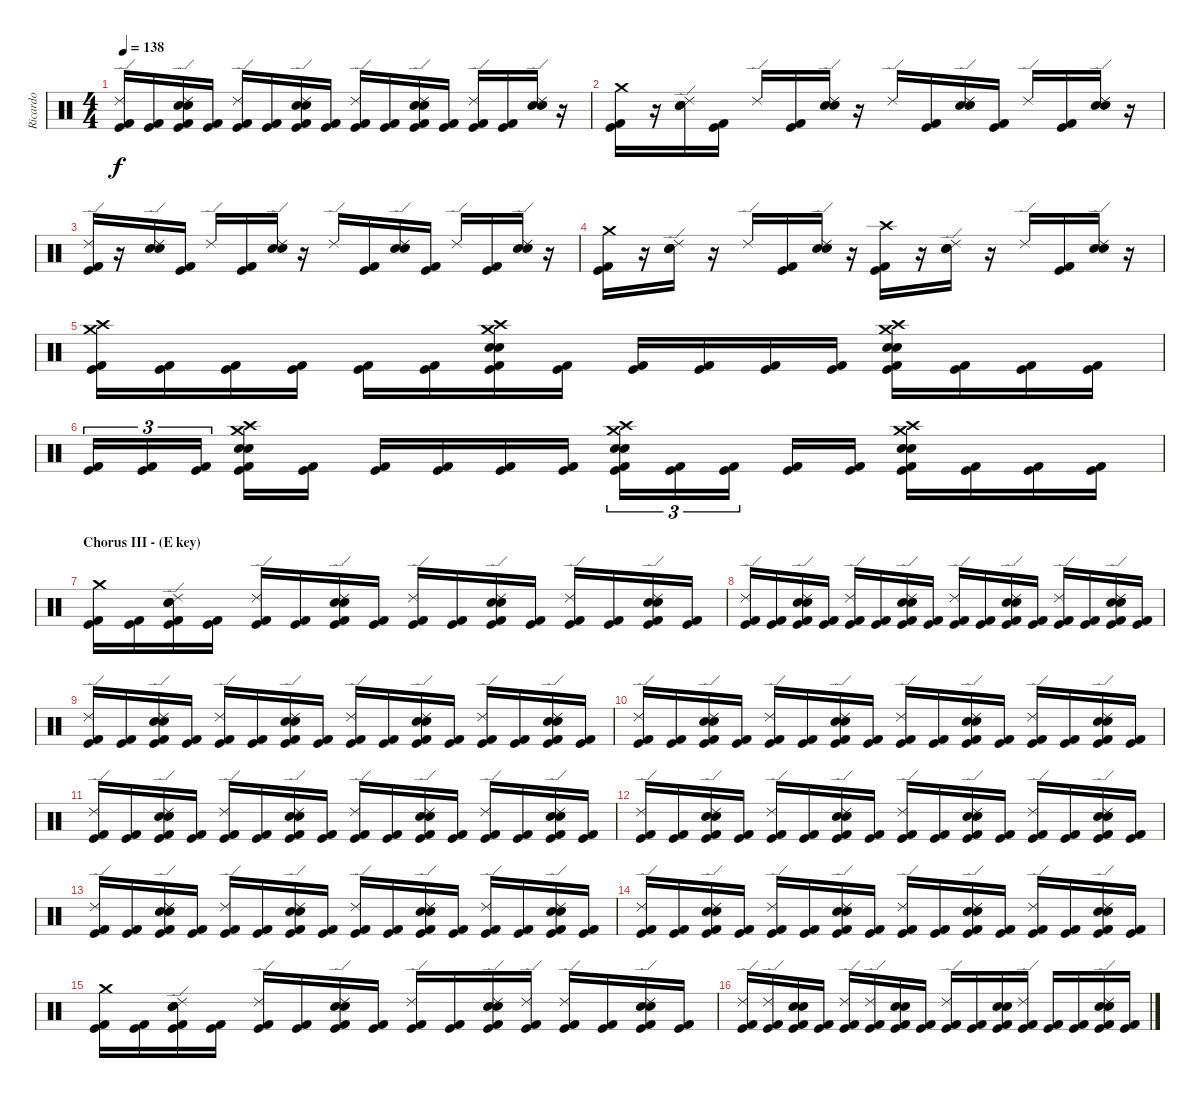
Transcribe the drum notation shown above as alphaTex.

\track ("Ricardo" "Ricardo") {instrument percussion}
\staff {score}
\articulation defaults
\ts (4 4)
\tempo 138
\clef neutral
\ks c
("Ride (edge) 2" "Kick (hit) 2" "Kick (hit)").16{dy f} ("Kick (hit) 2" "Kick (hit)").16 ("Electric Snare (hit)" "Snare (hit) 2" "Ride (edge) 2" "Kick (hit) 2" "Kick (hit)").16 ("Kick (hit) 2" "Kick (hit)").16 ("Ride (edge) 2" "Kick (hit) 2" "Kick (hit)").16 ("Kick (hit) 2" "Kick (hit)").16 ("Electric Snare (hit)" "Snare (hit) 2" "Ride (edge) 2" "Kick (hit) 2" "Kick (hit)").16 ("Kick (hit) 2" "Kick (hit)").16 ("Ride (edge) 2" "Kick (hit) 2" "Kick (hit)").16 ("Kick (hit) 2" "Kick (hit)").16 ("Electric Snare (hit)" "Snare (hit) 2" "Ride (edge) 2" "Kick (hit) 2" "Kick (hit)").16 ("Kick (hit) 2" "Kick (hit)").16 ("Ride (edge) 2" "Kick (hit) 2" "Kick (hit)").16 ("Kick (hit) 2" "Kick (hit)").16 ("Ride (edge) 2" "Electric Snare (hit)" "Snare (hit) 2").16 r.16 |
("Crash medium (hit)" "Kick (hit) 2" "Kick (hit)").16 r.16 ("Electric Snare (hit)" "Snare (hit) 2" "Ride (edge) 2").16 ("Kick (hit) 2" "Kick (hit)").16 "Ride (edge) 2".16 ("Kick (hit) 2" "Kick (hit)").16 ("Electric Snare (hit)" "Snare (hit) 2" "Ride (edge) 2").16 r.16 "Ride (edge) 2".16 ("Kick (hit) 2" "Kick (hit)").16 ("Electric Snare (hit)" "Snare (hit) 2" "Ride (edge) 2").16 ("Kick (hit) 2" "Kick (hit)").16 "Ride (edge) 2".16 ("Kick (hit) 2" "Kick (hit)").16 ("Electric Snare (hit)" "Snare (hit) 2" "Ride (edge) 2").16 r.16 |
("Ride (edge) 2" "Kick (hit) 2" "Kick (hit)").16 r.16 ("Ride (edge) 2" "Electric Snare (hit)" "Snare (hit) 2").16 ("Kick (hit) 2" "Kick (hit)").16 "Ride (edge) 2".16 ("Kick (hit) 2" "Kick (hit)").16 ("Electric Snare (hit)" "Snare (hit) 2" "Ride (edge) 2").16 r.16 "Ride (edge) 2".16 ("Kick (hit) 2" "Kick (hit)").16 ("Electric Snare (hit)" "Snare (hit) 2" "Ride (edge) 2").16 ("Kick (hit) 2" "Kick (hit)").16 "Ride (edge) 2".16 ("Kick (hit) 2" "Kick (hit)").16 ("Electric Snare (hit)" "Snare (hit) 2" "Ride (edge) 2").16 r.16 |
("Kick (hit) 2" "Kick (hit)" "Crash medium (hit)").16 r.16 ("Electric Snare (hit)" "Snare (hit) 2" "Ride (edge) 2").16 r.16 "Ride (edge) 2".16 ("Kick (hit) 2" "Kick (hit)").16 ("Electric Snare (hit)" "Snare (hit) 2" "Ride (edge) 2").16 r.16 ("Crash high (hit)" "Kick (hit) 2" "Kick (hit)").16 r.16 ("Ride (edge) 2" "Electric Snare (hit)" "Snare (hit) 2").16 r.16 "Ride (edge) 2".16 ("Kick (hit)" "Kick (hit) 2").16 ("Ride (edge) 2" "Electric Snare (hit)" "Snare (hit) 2").16 r.16 |
("Crash high (hit)" "Crash medium (hit)" "Kick (hit) 2" "Kick (hit)").16 ("Kick (hit) 2" "Kick (hit)").16 ("Kick (hit) 2" "Kick (hit)").16 ("Kick (hit) 2" "Kick (hit)").16 ("Kick (hit) 2" "Kick (hit)").16 ("Kick (hit) 2" "Kick (hit)").16 ("Crash high (hit)" "Crash medium (hit)" "Electric Snare (hit)" "Snare (hit) 2" "Kick (hit) 2" "Kick (hit)").16 ("Kick (hit) 2" "Kick (hit)").16 ("Kick (hit) 2" "Kick (hit)").16 ("Kick (hit) 2" "Kick (hit)").16 ("Kick (hit) 2" "Kick (hit)").16 ("Kick (hit) 2" "Kick (hit)").16 ("Crash medium (hit)" "Crash high (hit)" "Electric Snare (hit)" "Snare (hit) 2" "Kick (hit) 2" "Kick (hit)").16 ("Kick (hit) 2" "Kick (hit)").16 ("Kick (hit) 2" "Kick (hit)").16 ("Kick (hit) 2" "Kick (hit)").16 |
("Kick (hit) 2" "Kick (hit)").16{tu (3 2)} ("Kick (hit) 2" "Kick (hit)").16{tu (3 2)} ("Kick (hit) 2" "Kick (hit)").16{tu (3 2)} ("Crash high (hit)" "Crash medium (hit)" "Electric Snare (hit)" "Snare (hit) 2" "Kick (hit) 2" "Kick (hit)").16 ("Kick (hit) 2" "Kick (hit)").16 ("Kick (hit) 2" "Kick (hit)").16 ("Kick (hit) 2" "Kick (hit)").16 ("Kick (hit) 2" "Kick (hit)").16 ("Kick (hit) 2" "Kick (hit)").16 ("Crash medium (hit)" "Crash high (hit)" "Electric Snare (hit)" "Snare (hit) 2" "Kick (hit) 2" "Kick (hit)").16{tu (3 2)} ("Kick (hit) 2" "Kick (hit)").16{tu (3 2)} ("Kick (hit) 2" "Kick (hit)").16{tu (3 2)} ("Kick (hit) 2" "Kick (hit)").16 ("Kick (hit) 2" "Kick (hit)").16 ("Crash medium (hit)" "Crash high (hit)" "Electric Snare (hit)" "Snare (hit) 2" "Kick (hit) 2" "Kick (hit)").16 ("Kick (hit) 2" "Kick (hit)").16 ("Kick (hit) 2" "Kick (hit)").16 ("Kick (hit) 2" "Kick (hit)").16 |
\section ("" "Chorus III - (E key)")
("Crash medium (hit)" "Kick (hit) 2" "Kick (hit)").16 ("Kick (hit) 2" "Kick (hit)").16 ("Electric Snare (hit)" "Snare (hit) 2" "Ride (edge) 2" "Kick (hit) 2" "Kick (hit)").16 ("Kick (hit) 2" "Kick (hit)").16 ("Ride (edge) 2" "Kick (hit) 2" "Kick (hit)").16 ("Kick (hit) 2" "Kick (hit)").16 ("Electric Snare (hit)" "Snare (hit) 2" "Ride (edge) 2" "Kick (hit) 2" "Kick (hit)").16 ("Kick (hit) 2" "Kick (hit)").16 ("Ride (edge) 2" "Kick (hit) 2" "Kick (hit)").16 ("Kick (hit) 2" "Kick (hit)").16 ("Electric Snare (hit)" "Snare (hit) 2" "Ride (edge) 2" "Kick (hit) 2" "Kick (hit)").16 ("Kick (hit) 2" "Kick (hit)").16 ("Ride (edge) 2" "Kick (hit) 2" "Kick (hit)").16 ("Kick (hit) 2" "Kick (hit)").16 ("Electric Snare (hit)" "Snare (hit) 2" "Ride (edge) 2" "Kick (hit) 2" "Kick (hit)").16 ("Kick (hit) 2" "Kick (hit)").16 |
("Ride (edge) 2" "Kick (hit) 2" "Kick (hit)").16 ("Kick (hit) 2" "Kick (hit)").16 ("Electric Snare (hit)" "Snare (hit) 2" "Ride (edge) 2" "Kick (hit) 2" "Kick (hit)").16 ("Kick (hit) 2" "Kick (hit)").16 ("Ride (edge) 2" "Kick (hit) 2" "Kick (hit)").16 ("Kick (hit) 2" "Kick (hit)").16 ("Electric Snare (hit)" "Snare (hit) 2" "Ride (edge) 2" "Kick (hit) 2" "Kick (hit)").16 ("Kick (hit) 2" "Kick (hit)").16 ("Ride (edge) 2" "Kick (hit) 2" "Kick (hit)").16 ("Kick (hit) 2" "Kick (hit)").16 ("Electric Snare (hit)" "Snare (hit) 2" "Ride (edge) 2" "Kick (hit) 2" "Kick (hit)").16 ("Kick (hit) 2" "Kick (hit)").16 ("Ride (edge) 2" "Kick (hit) 2" "Kick (hit)").16 ("Kick (hit) 2" "Kick (hit)").16 ("Electric Snare (hit)" "Snare (hit) 2" "Ride (edge) 2" "Kick (hit) 2" "Kick (hit)").16 ("Kick (hit) 2" "Kick (hit)").16 |
("Ride (edge) 2" "Kick (hit) 2" "Kick (hit)").16 ("Kick (hit) 2" "Kick (hit)").16 ("Electric Snare (hit)" "Snare (hit) 2" "Ride (edge) 2" "Kick (hit) 2" "Kick (hit)").16 ("Kick (hit) 2" "Kick (hit)").16 ("Ride (edge) 2" "Kick (hit) 2" "Kick (hit)").16 ("Kick (hit) 2" "Kick (hit)").16 ("Electric Snare (hit)" "Snare (hit) 2" "Ride (edge) 2" "Kick (hit) 2" "Kick (hit)").16 ("Kick (hit) 2" "Kick (hit)").16 ("Ride (edge) 2" "Kick (hit) 2" "Kick (hit)").16 ("Kick (hit) 2" "Kick (hit)").16 ("Electric Snare (hit)" "Snare (hit) 2" "Ride (edge) 2" "Kick (hit) 2" "Kick (hit)").16 ("Kick (hit) 2" "Kick (hit)").16 ("Ride (edge) 2" "Kick (hit) 2" "Kick (hit)").16 ("Kick (hit) 2" "Kick (hit)").16 ("Electric Snare (hit)" "Snare (hit) 2" "Ride (edge) 2" "Kick (hit) 2" "Kick (hit)").16 ("Kick (hit) 2" "Kick (hit)").16 |
("Ride (edge) 2" "Kick (hit) 2" "Kick (hit)").16 ("Kick (hit) 2" "Kick (hit)").16 ("Electric Snare (hit)" "Snare (hit) 2" "Ride (edge) 2" "Kick (hit) 2" "Kick (hit)").16 ("Kick (hit) 2" "Kick (hit)").16 ("Ride (edge) 2" "Kick (hit) 2" "Kick (hit)").16 ("Kick (hit) 2" "Kick (hit)").16 ("Electric Snare (hit)" "Snare (hit) 2" "Ride (edge) 2" "Kick (hit) 2" "Kick (hit)").16 ("Kick (hit) 2" "Kick (hit)").16 ("Ride (edge) 2" "Kick (hit) 2" "Kick (hit)").16 ("Kick (hit) 2" "Kick (hit)").16 ("Electric Snare (hit)" "Snare (hit) 2" "Ride (edge) 2" "Kick (hit) 2" "Kick (hit)").16 ("Kick (hit) 2" "Kick (hit)").16 ("Ride (edge) 2" "Kick (hit) 2" "Kick (hit)").16 ("Kick (hit) 2" "Kick (hit)").16 ("Electric Snare (hit)" "Snare (hit) 2" "Ride (edge) 2" "Kick (hit) 2" "Kick (hit)").16 ("Kick (hit) 2" "Kick (hit)").16 |
("Ride (edge) 2" "Kick (hit) 2" "Kick (hit)").16 ("Kick (hit) 2" "Kick (hit)").16 ("Electric Snare (hit)" "Snare (hit) 2" "Ride (edge) 2" "Kick (hit) 2" "Kick (hit)").16 ("Kick (hit) 2" "Kick (hit)").16 ("Ride (edge) 2" "Kick (hit) 2" "Kick (hit)").16 ("Kick (hit) 2" "Kick (hit)").16 ("Electric Snare (hit)" "Snare (hit) 2" "Ride (edge) 2" "Kick (hit) 2" "Kick (hit)").16 ("Kick (hit) 2" "Kick (hit)").16 ("Ride (edge) 2" "Kick (hit) 2" "Kick (hit)").16 ("Kick (hit) 2" "Kick (hit)").16 ("Electric Snare (hit)" "Snare (hit) 2" "Ride (edge) 2" "Kick (hit) 2" "Kick (hit)").16 ("Kick (hit) 2" "Kick (hit)").16 ("Ride (edge) 2" "Kick (hit) 2" "Kick (hit)").16 ("Kick (hit) 2" "Kick (hit)").16 ("Electric Snare (hit)" "Snare (hit) 2" "Ride (edge) 2" "Kick (hit) 2" "Kick (hit)").16 ("Kick (hit) 2" "Kick (hit)").16 |
("Ride (edge) 2" "Kick (hit) 2" "Kick (hit)").16 ("Kick (hit) 2" "Kick (hit)").16 ("Electric Snare (hit)" "Snare (hit) 2" "Ride (edge) 2" "Kick (hit) 2" "Kick (hit)").16 ("Kick (hit) 2" "Kick (hit)").16 ("Ride (edge) 2" "Kick (hit) 2" "Kick (hit)").16 ("Kick (hit) 2" "Kick (hit)").16 ("Electric Snare (hit)" "Snare (hit) 2" "Ride (edge) 2" "Kick (hit) 2" "Kick (hit)").16 ("Kick (hit) 2" "Kick (hit)").16 ("Ride (edge) 2" "Kick (hit) 2" "Kick (hit)").16 ("Kick (hit) 2" "Kick (hit)").16 ("Electric Snare (hit)" "Snare (hit) 2" "Ride (edge) 2" "Kick (hit) 2" "Kick (hit)").16 ("Kick (hit) 2" "Kick (hit)").16 ("Ride (edge) 2" "Kick (hit) 2" "Kick (hit)").16 ("Kick (hit) 2" "Kick (hit)").16 ("Electric Snare (hit)" "Snare (hit) 2" "Ride (edge) 2" "Kick (hit) 2" "Kick (hit)").16 ("Kick (hit) 2" "Kick (hit)").16 |
("Ride (edge) 2" "Kick (hit) 2" "Kick (hit)").16 ("Kick (hit) 2" "Kick (hit)").16 ("Electric Snare (hit)" "Snare (hit) 2" "Ride (edge) 2" "Kick (hit) 2" "Kick (hit)").16 ("Kick (hit) 2" "Kick (hit)").16 ("Ride (edge) 2" "Kick (hit) 2" "Kick (hit)").16 ("Kick (hit) 2" "Kick (hit)").16 ("Electric Snare (hit)" "Snare (hit) 2" "Ride (edge) 2" "Kick (hit) 2" "Kick (hit)").16 ("Kick (hit) 2" "Kick (hit)").16 ("Ride (edge) 2" "Kick (hit) 2" "Kick (hit)").16 ("Kick (hit) 2" "Kick (hit)").16 ("Electric Snare (hit)" "Snare (hit) 2" "Ride (edge) 2" "Kick (hit) 2" "Kick (hit)").16 ("Kick (hit) 2" "Kick (hit)").16 ("Ride (edge) 2" "Kick (hit) 2" "Kick (hit)").16 ("Kick (hit) 2" "Kick (hit)").16 ("Electric Snare (hit)" "Snare (hit) 2" "Ride (edge) 2" "Kick (hit) 2" "Kick (hit)").16 ("Kick (hit) 2" "Kick (hit)").16 |
("Ride (edge) 2" "Kick (hit) 2" "Kick (hit)").16 ("Kick (hit) 2" "Kick (hit)").16 ("Electric Snare (hit)" "Snare (hit) 2" "Ride (edge) 2" "Kick (hit) 2" "Kick (hit)").16 ("Kick (hit) 2" "Kick (hit)").16 ("Ride (edge) 2" "Kick (hit) 2" "Kick (hit)").16 ("Kick (hit) 2" "Kick (hit)").16 ("Electric Snare (hit)" "Snare (hit) 2" "Ride (edge) 2" "Kick (hit) 2" "Kick (hit)").16 ("Kick (hit) 2" "Kick (hit)").16 ("Ride (edge) 2" "Kick (hit) 2" "Kick (hit)").16 ("Kick (hit) 2" "Kick (hit)").16 ("Electric Snare (hit)" "Snare (hit) 2" "Ride (edge) 2" "Kick (hit) 2" "Kick (hit)").16 ("Kick (hit) 2" "Kick (hit)").16 ("Ride (edge) 2" "Kick (hit) 2" "Kick (hit)").16 ("Kick (hit) 2" "Kick (hit)").16 ("Electric Snare (hit)" "Snare (hit) 2" "Ride (edge) 2" "Kick (hit) 2" "Kick (hit)").16 ("Kick (hit) 2" "Kick (hit)").16 |
("Crash medium (hit)" "Kick (hit) 2" "Kick (hit)").16 ("Kick (hit) 2" "Kick (hit)").16 ("Electric Snare (hit)" "Snare (hit) 2" "Ride (edge) 2" "Kick (hit) 2" "Kick (hit)").16 ("Kick (hit) 2" "Kick (hit)").16 ("Ride (edge) 2" "Kick (hit) 2" "Kick (hit)").16 ("Kick (hit) 2" "Kick (hit)").16 ("Electric Snare (hit)" "Snare (hit) 2" "Ride (edge) 2" "Kick (hit) 2" "Kick (hit)").16 ("Kick (hit) 2" "Kick (hit)").16 ("Ride (edge) 2" "Kick (hit) 2" "Kick (hit)").16 ("Kick (hit) 2" "Kick (hit)").16 ("Electric Snare (hit)" "Snare (hit) 2" "Ride (edge) 2" "Kick (hit) 2" "Kick (hit)").16 ("Ride (edge) 2" "Kick (hit) 2" "Kick (hit)").16 ("Ride (edge) 2" "Kick (hit) 2" "Kick (hit)").16 ("Kick (hit) 2" "Kick (hit)").16 ("Electric Snare (hit)" "Snare (hit) 2" "Ride (edge) 2" "Kick (hit) 2" "Kick (hit)").16 ("Kick (hit) 2" "Kick (hit)").16 |
("Ride (edge) 2" "Kick (hit) 2" "Kick (hit)").16 ("Ride (edge) 2" "Kick (hit) 2" "Kick (hit)").16 ("Electric Snare (hit)" "Snare (hit) 2" "Kick (hit) 2" "Kick (hit)").16 ("Kick (hit) 2" "Kick (hit)").16 ("Ride (edge) 2" "Kick (hit) 2" "Kick (hit)").16 ("Ride (edge) 2" "Kick (hit) 2" "Kick (hit)").16 ("Electric Snare (hit)" "Snare (hit) 2" "Kick (hit) 2" "Kick (hit)").16 ("Kick (hit) 2" "Kick (hit)").16 ("Ride (edge) 2" "Kick (hit) 2" "Kick (hit)").16 ("Kick (hit) 2" "Kick (hit)").16 ("Electric Snare (hit)" "Snare (hit) 2" "Kick (hit) 2" "Kick (hit)").16 ("Ride (edge) 2" "Kick (hit) 2" "Kick (hit)").16 ("Kick (hit) 2" "Kick (hit)").16 ("Kick (hit) 2" "Kick (hit)").16 ("Electric Snare (hit)" "Snare (hit) 2" "Ride (edge) 2" "Kick (hit) 2" "Kick (hit)").16 ("Kick (hit) 2" "Kick (hit)").16
